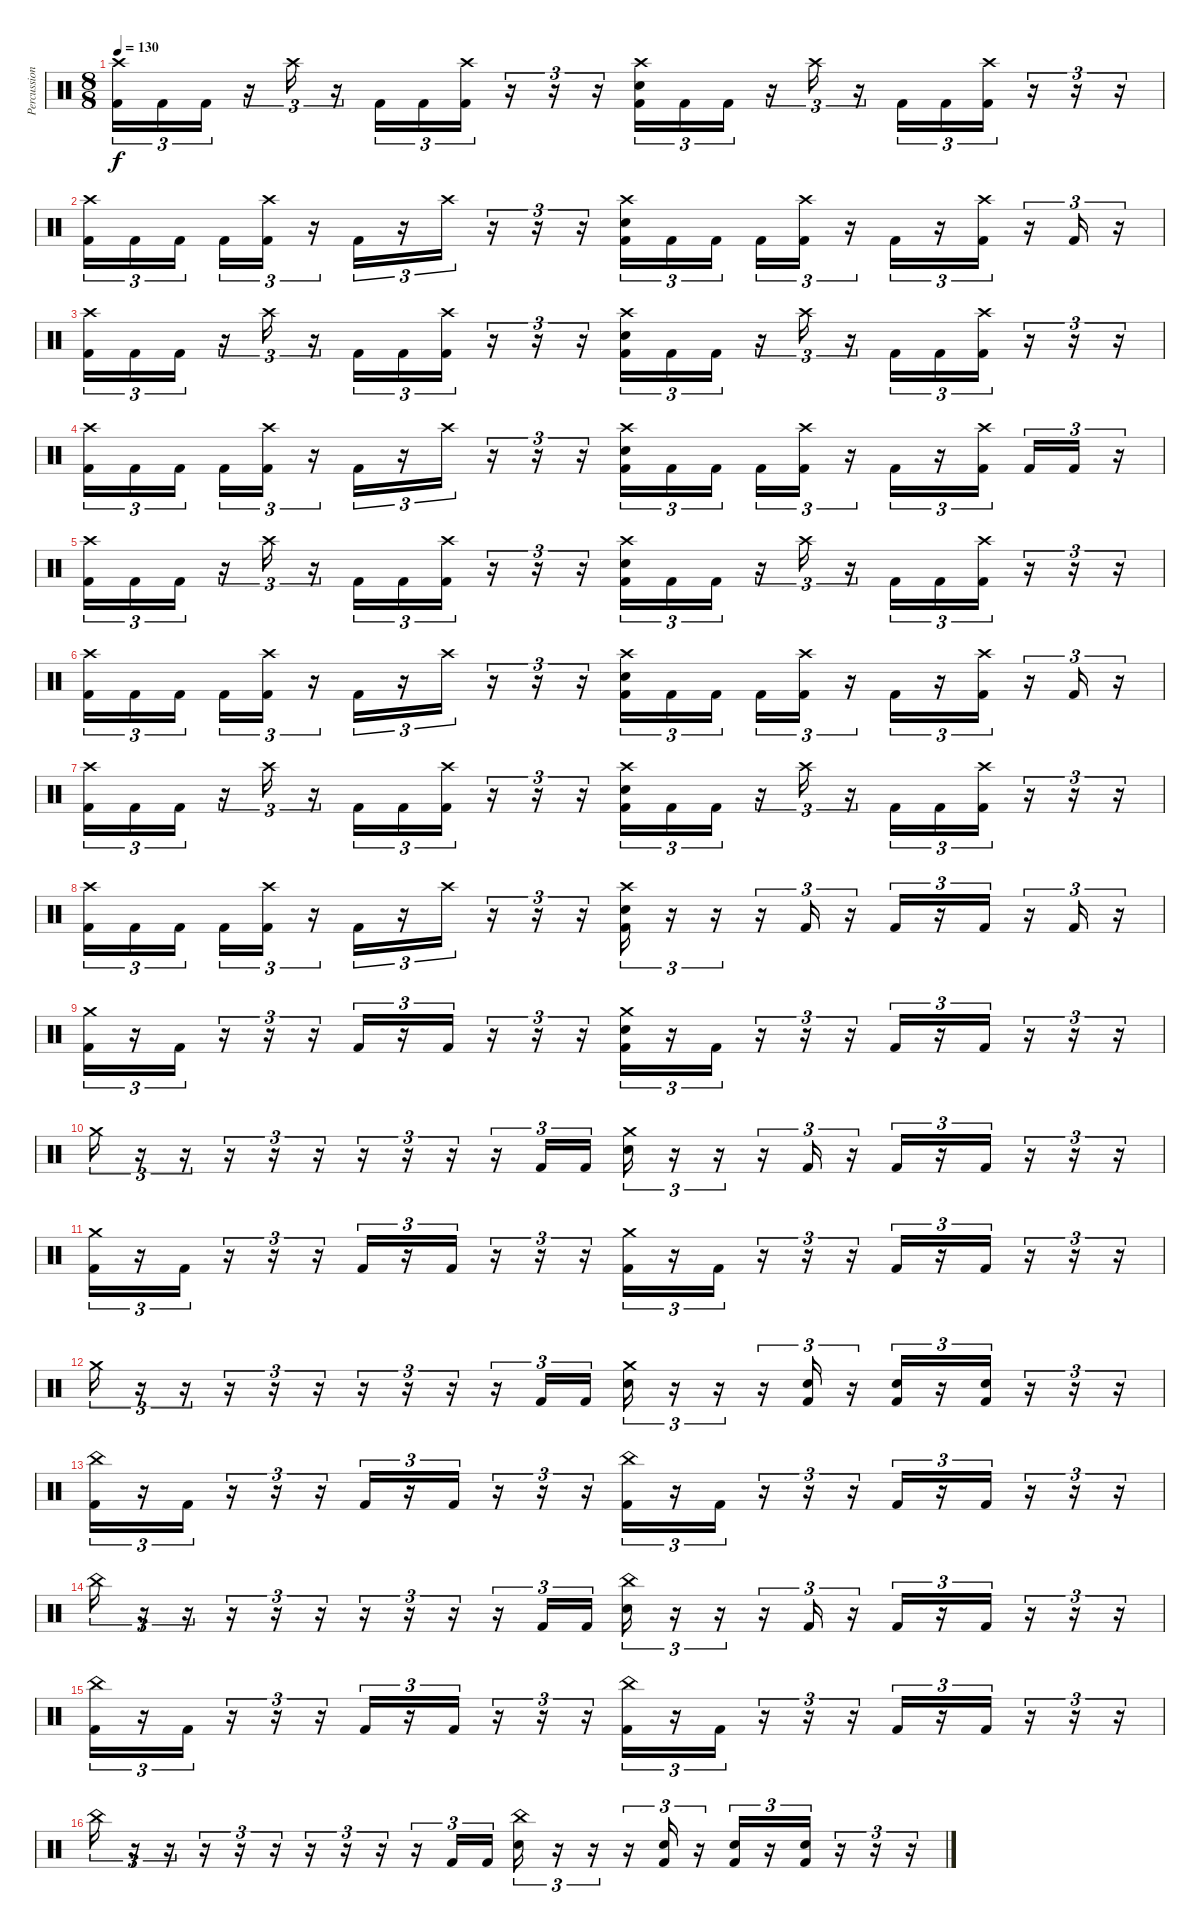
\track ("Percussion" "Percussion") {instrument percussion}
\staff {score}
\articulation defaults
\ts (8 8)
\tempo 130
\clef neutral
\ks c
("Crash high (hit)" "Kick (hit) 2").16{tu (3 2) dy f} "Kick (hit) 2".16{tu (3 2)} "Kick (hit) 2".16{tu (3 2)} r.16{tu (3 2)} "Crash high (hit)".16{tu (3 2)} r.16{tu (3 2)} "Kick (hit) 2".16{tu (3 2)} "Kick (hit) 2".16{tu (3 2)} ("Crash high (hit)" "Kick (hit) 2").16{tu (3 2)} r.16{tu (3 2)} r.16{tu (3 2)} r.16{tu (3 2)} ("Crash high (hit)" "Snare (hit) 2" "Kick (hit) 2").16{tu (3 2)} "Kick (hit) 2".16{tu (3 2)} "Kick (hit) 2".16{tu (3 2)} r.16{tu (3 2)} "Crash high (hit)".16{tu (3 2)} r.16{tu (3 2)} "Kick (hit) 2".16{tu (3 2)} "Kick (hit) 2".16{tu (3 2)} ("Crash high (hit)" "Kick (hit) 2").16{tu (3 2)} r.16{tu (3 2)} r.16{tu (3 2)} r.16{tu (3 2)} |
("Crash high (hit)" "Kick (hit) 2").16{tu (3 2)} "Kick (hit) 2".16{tu (3 2)} "Kick (hit) 2".16{tu (3 2)} "Kick (hit) 2".16{tu (3 2)} ("Crash high (hit)" "Kick (hit) 2").16{tu (3 2)} r.16{tu (3 2)} "Kick (hit) 2".16{tu (3 2)} r.16{tu (3 2)} "Crash high (hit)".16{tu (3 2)} r.16{tu (3 2)} r.16{tu (3 2)} r.16{tu (3 2)} ("Crash high (hit)" "Snare (hit) 2" "Kick (hit) 2").16{tu (3 2)} "Kick (hit) 2".16{tu (3 2)} "Kick (hit) 2".16{tu (3 2)} "Kick (hit) 2".16{tu (3 2)} ("Crash high (hit)" "Kick (hit) 2").16{tu (3 2)} r.16{tu (3 2)} "Kick (hit) 2".16{tu (3 2)} r.16{tu (3 2)} ("Crash high (hit)" "Kick (hit) 2").16{tu (3 2)} r.16{tu (3 2)} "Kick (hit) 2".16{tu (3 2)} r.16{tu (3 2)} |
("Crash high (hit)" "Kick (hit) 2").16{tu (3 2)} "Kick (hit) 2".16{tu (3 2)} "Kick (hit) 2".16{tu (3 2)} r.16{tu (3 2)} "Crash high (hit)".16{tu (3 2)} r.16{tu (3 2)} "Kick (hit) 2".16{tu (3 2)} "Kick (hit) 2".16{tu (3 2)} ("Crash high (hit)" "Kick (hit) 2").16{tu (3 2)} r.16{tu (3 2)} r.16{tu (3 2)} r.16{tu (3 2)} ("Crash high (hit)" "Snare (hit) 2" "Kick (hit) 2").16{tu (3 2)} "Kick (hit) 2".16{tu (3 2)} "Kick (hit) 2".16{tu (3 2)} r.16{tu (3 2)} "Crash high (hit)".16{tu (3 2)} r.16{tu (3 2)} "Kick (hit) 2".16{tu (3 2)} "Kick (hit) 2".16{tu (3 2)} ("Crash high (hit)" "Kick (hit) 2").16{tu (3 2)} r.16{tu (3 2)} r.16{tu (3 2)} r.16{tu (3 2)} |
("Crash high (hit)" "Kick (hit) 2").16{tu (3 2)} "Kick (hit) 2".16{tu (3 2)} "Kick (hit) 2".16{tu (3 2)} "Kick (hit) 2".16{tu (3 2)} ("Crash high (hit)" "Kick (hit) 2").16{tu (3 2)} r.16{tu (3 2)} "Kick (hit) 2".16{tu (3 2)} r.16{tu (3 2)} "Crash high (hit)".16{tu (3 2)} r.16{tu (3 2)} r.16{tu (3 2)} r.16{tu (3 2)} ("Crash high (hit)" "Snare (hit) 2" "Kick (hit) 2").16{tu (3 2)} "Kick (hit) 2".16{tu (3 2)} "Kick (hit) 2".16{tu (3 2)} "Kick (hit) 2".16{tu (3 2)} ("Crash high (hit)" "Kick (hit) 2").16{tu (3 2)} r.16{tu (3 2)} "Kick (hit) 2".16{tu (3 2)} r.16{tu (3 2)} ("Crash high (hit)" "Kick (hit) 2").16{tu (3 2)} "Kick (hit) 2".16{tu (3 2)} "Kick (hit) 2".16{tu (3 2)} r.16{tu (3 2)} |
("Crash high (hit)" "Kick (hit) 2").16{tu (3 2)} "Kick (hit) 2".16{tu (3 2)} "Kick (hit) 2".16{tu (3 2)} r.16{tu (3 2)} "Crash high (hit)".16{tu (3 2)} r.16{tu (3 2)} "Kick (hit) 2".16{tu (3 2)} "Kick (hit) 2".16{tu (3 2)} ("Crash high (hit)" "Kick (hit) 2").16{tu (3 2)} r.16{tu (3 2)} r.16{tu (3 2)} r.16{tu (3 2)} ("Crash high (hit)" "Snare (hit) 2" "Kick (hit) 2").16{tu (3 2)} "Kick (hit) 2".16{tu (3 2)} "Kick (hit) 2".16{tu (3 2)} r.16{tu (3 2)} "Crash high (hit)".16{tu (3 2)} r.16{tu (3 2)} "Kick (hit) 2".16{tu (3 2)} "Kick (hit) 2".16{tu (3 2)} ("Crash high (hit)" "Kick (hit) 2").16{tu (3 2)} r.16{tu (3 2)} r.16{tu (3 2)} r.16{tu (3 2)} |
("Crash high (hit)" "Kick (hit) 2").16{tu (3 2)} "Kick (hit) 2".16{tu (3 2)} "Kick (hit) 2".16{tu (3 2)} "Kick (hit) 2".16{tu (3 2)} ("Crash high (hit)" "Kick (hit) 2").16{tu (3 2)} r.16{tu (3 2)} "Kick (hit) 2".16{tu (3 2)} r.16{tu (3 2)} "Crash high (hit)".16{tu (3 2)} r.16{tu (3 2)} r.16{tu (3 2)} r.16{tu (3 2)} ("Crash high (hit)" "Snare (hit) 2" "Kick (hit) 2").16{tu (3 2)} "Kick (hit) 2".16{tu (3 2)} "Kick (hit) 2".16{tu (3 2)} "Kick (hit) 2".16{tu (3 2)} ("Crash high (hit)" "Kick (hit) 2").16{tu (3 2)} r.16{tu (3 2)} "Kick (hit) 2".16{tu (3 2)} r.16{tu (3 2)} ("Crash high (hit)" "Kick (hit) 2").16{tu (3 2)} r.16{tu (3 2)} "Kick (hit) 2".16{tu (3 2)} r.16{tu (3 2)} |
("Crash high (hit)" "Kick (hit) 2").16{tu (3 2)} "Kick (hit) 2".16{tu (3 2)} "Kick (hit) 2".16{tu (3 2)} r.16{tu (3 2)} "Crash high (hit)".16{tu (3 2)} r.16{tu (3 2)} "Kick (hit) 2".16{tu (3 2)} "Kick (hit) 2".16{tu (3 2)} ("Crash high (hit)" "Kick (hit) 2").16{tu (3 2)} r.16{tu (3 2)} r.16{tu (3 2)} r.16{tu (3 2)} ("Crash high (hit)" "Snare (hit) 2" "Kick (hit) 2").16{tu (3 2)} "Kick (hit) 2".16{tu (3 2)} "Kick (hit) 2".16{tu (3 2)} r.16{tu (3 2)} "Crash high (hit)".16{tu (3 2)} r.16{tu (3 2)} "Kick (hit) 2".16{tu (3 2)} "Kick (hit) 2".16{tu (3 2)} ("Crash high (hit)" "Kick (hit) 2").16{tu (3 2)} r.16{tu (3 2)} r.16{tu (3 2)} r.16{tu (3 2)} |
("Crash high (hit)" "Kick (hit) 2").16{tu (3 2)} "Kick (hit) 2".16{tu (3 2)} "Kick (hit) 2".16{tu (3 2)} "Kick (hit) 2".16{tu (3 2)} ("Crash high (hit)" "Kick (hit) 2").16{tu (3 2)} r.16{tu (3 2)} "Kick (hit) 2".16{tu (3 2)} r.16{tu (3 2)} "Crash high (hit)".16{tu (3 2)} r.16{tu (3 2)} r.16{tu (3 2)} r.16{tu (3 2)} ("Crash high (hit)" "Snare (hit) 2" "Kick (hit) 2").16{tu (3 2)} r.16{tu (3 2)} r.16{tu (3 2)} r.16{tu (3 2) volume 0} "Kick (hit) 2".16{tu (3 2)} r.16{tu (3 2)} "Kick (hit) 2".16{tu (3 2)} r.16{tu (3 2)} "Kick (hit) 2".16{tu (3 2)} r.16{tu (3 2)} "Kick (hit) 2".16{tu (3 2)} r.16{tu (3 2)} |
("Crash medium (hit)" "Kick (hit) 2").16{tu (3 2) volume 13} r.16{tu (3 2)} "Kick (hit) 2".16{tu (3 2)} r.16{tu (3 2)} r.16{tu (3 2)} r.16{tu (3 2)} "Kick (hit) 2".16{tu (3 2)} r.16{tu (3 2)} "Kick (hit) 2".16{tu (3 2)} r.16{tu (3 2)} r.16{tu (3 2)} r.16{tu (3 2)} ("Crash medium (hit)" "Snare (hit) 2" "Kick (hit) 2").16{tu (3 2)} r.16{tu (3 2)} "Kick (hit) 2".16{tu (3 2)} r.16{tu (3 2)} r.16{tu (3 2)} r.16{tu (3 2)} "Kick (hit) 2".16{tu (3 2)} r.16{tu (3 2)} "Kick (hit) 2".16{tu (3 2)} r.16{tu (3 2)} r.16{tu (3 2)} r.16{tu (3 2)} |
"Crash medium (hit)".16{tu (3 2)} r.16{tu (3 2)} r.16{tu (3 2)} r.16{tu (3 2)} r.16{tu (3 2)} r.16{tu (3 2)} r.16{tu (3 2)} r.16{tu (3 2)} r.16{tu (3 2)} r.16{tu (3 2)} "Kick (hit) 2".16{tu (3 2)} "Kick (hit) 2".16{tu (3 2)} ("Crash medium (hit)" "Snare (hit) 2").16{tu (3 2)} r.16{tu (3 2)} r.16{tu (3 2)} r.16{tu (3 2)} "Kick (hit) 2".16{tu (3 2)} r.16{tu (3 2)} "Kick (hit) 2".16{tu (3 2)} r.16{tu (3 2)} "Kick (hit) 2".16{tu (3 2)} r.16{tu (3 2)} r.16{tu (3 2)} r.16{tu (3 2)} |
("Crash medium (hit)" "Kick (hit) 2").16{tu (3 2)} r.16{tu (3 2)} "Kick (hit) 2".16{tu (3 2)} r.16{tu (3 2)} r.16{tu (3 2)} r.16{tu (3 2)} "Kick (hit) 2".16{tu (3 2)} r.16{tu (3 2)} "Kick (hit) 2".16{tu (3 2)} r.16{tu (3 2)} r.16{tu (3 2)} r.16{tu (3 2)} ("Crash medium (hit)" "Kick (hit) 2").16{tu (3 2)} r.16{tu (3 2)} "Kick (hit) 2".16{tu (3 2)} r.16{tu (3 2)} r.16{tu (3 2)} r.16{tu (3 2)} "Kick (hit) 2".16{tu (3 2)} r.16{tu (3 2)} "Kick (hit) 2".16{tu (3 2)} r.16{tu (3 2)} r.16{tu (3 2)} r.16{tu (3 2)} |
"Crash medium (hit)".16{tu (3 2)} r.16{tu (3 2)} r.16{tu (3 2)} r.16{tu (3 2)} r.16{tu (3 2)} r.16{tu (3 2)} r.16{tu (3 2)} r.16{tu (3 2)} r.16{tu (3 2)} r.16{tu (3 2)} "Kick (hit) 2".16{tu (3 2)} "Kick (hit) 2".16{tu (3 2)} ("Crash medium (hit)" "Snare (hit) 2").16{tu (3 2)} r.16{tu (3 2)} r.16{tu (3 2)} r.16{tu (3 2)} ("Snare (hit) 2" "Kick (hit) 2").16{tu (3 2)} r.16{tu (3 2)} ("Snare (hit) 2" "Kick (hit) 2").16{tu (3 2)} r.16{tu (3 2)} ("Snare (hit) 2" "Kick (hit) 2").16{tu (3 2)} r.16{tu (3 2)} r.16{tu (3 2)} r.16{tu (3 2)} |
("China (hit)" "Kick (hit) 2").16{tu (3 2)} r.16{tu (3 2)} "Kick (hit) 2".16{tu (3 2)} r.16{tu (3 2)} r.16{tu (3 2)} r.16{tu (3 2)} "Kick (hit) 2".16{tu (3 2)} r.16{tu (3 2)} "Kick (hit) 2".16{tu (3 2)} r.16{tu (3 2)} r.16{tu (3 2)} r.16{tu (3 2)} ("China (hit)" "Kick (hit) 2").16{tu (3 2)} r.16{tu (3 2)} "Kick (hit) 2".16{tu (3 2)} r.16{tu (3 2)} r.16{tu (3 2)} r.16{tu (3 2)} "Kick (hit) 2".16{tu (3 2)} r.16{tu (3 2)} "Kick (hit) 2".16{tu (3 2)} r.16{tu (3 2)} r.16{tu (3 2)} r.16{tu (3 2)} |
"China (hit)".16{tu (3 2)} r.16{tu (3 2)} r.16{tu (3 2)} r.16{tu (3 2)} r.16{tu (3 2)} r.16{tu (3 2)} r.16{tu (3 2)} r.16{tu (3 2)} r.16{tu (3 2)} r.16{tu (3 2)} "Kick (hit) 2".16{tu (3 2)} "Kick (hit) 2".16{tu (3 2)} ("China (hit)" "Snare (hit) 2").16{tu (3 2)} r.16{tu (3 2)} r.16{tu (3 2)} r.16{tu (3 2)} "Kick (hit) 2".16{tu (3 2)} r.16{tu (3 2)} "Kick (hit) 2".16{tu (3 2)} r.16{tu (3 2)} "Kick (hit) 2".16{tu (3 2)} r.16{tu (3 2)} r.16{tu (3 2)} r.16{tu (3 2)} |
("China (hit)" "Kick (hit) 2").16{tu (3 2)} r.16{tu (3 2)} "Kick (hit) 2".16{tu (3 2)} r.16{tu (3 2)} r.16{tu (3 2)} r.16{tu (3 2)} "Kick (hit) 2".16{tu (3 2)} r.16{tu (3 2)} "Kick (hit) 2".16{tu (3 2)} r.16{tu (3 2)} r.16{tu (3 2)} r.16{tu (3 2)} ("China (hit)" "Kick (hit) 2").16{tu (3 2)} r.16{tu (3 2)} "Kick (hit) 2".16{tu (3 2)} r.16{tu (3 2)} r.16{tu (3 2)} r.16{tu (3 2)} "Kick (hit) 2".16{tu (3 2)} r.16{tu (3 2)} "Kick (hit) 2".16{tu (3 2)} r.16{tu (3 2)} r.16{tu (3 2)} r.16{tu (3 2)} |
"China (hit)".16{tu (3 2)} r.16{tu (3 2)} r.16{tu (3 2)} r.16{tu (3 2)} r.16{tu (3 2)} r.16{tu (3 2)} r.16{tu (3 2)} r.16{tu (3 2)} r.16{tu (3 2)} r.16{tu (3 2)} "Kick (hit) 2".16{tu (3 2)} "Kick (hit) 2".16{tu (3 2)} ("China (hit)" "Snare (hit) 2").16{tu (3 2)} r.16{tu (3 2)} r.16{tu (3 2)} r.16{tu (3 2)} ("Snare (hit) 2" "Kick (hit) 2").16{tu (3 2)} r.16{tu (3 2)} ("Snare (hit) 2" "Kick (hit) 2").16{tu (3 2)} r.16{tu (3 2)} ("Snare (hit) 2" "Kick (hit) 2").16{tu (3 2)} r.16{tu (3 2)} r.16{tu (3 2)} r.16{tu (3 2)}
